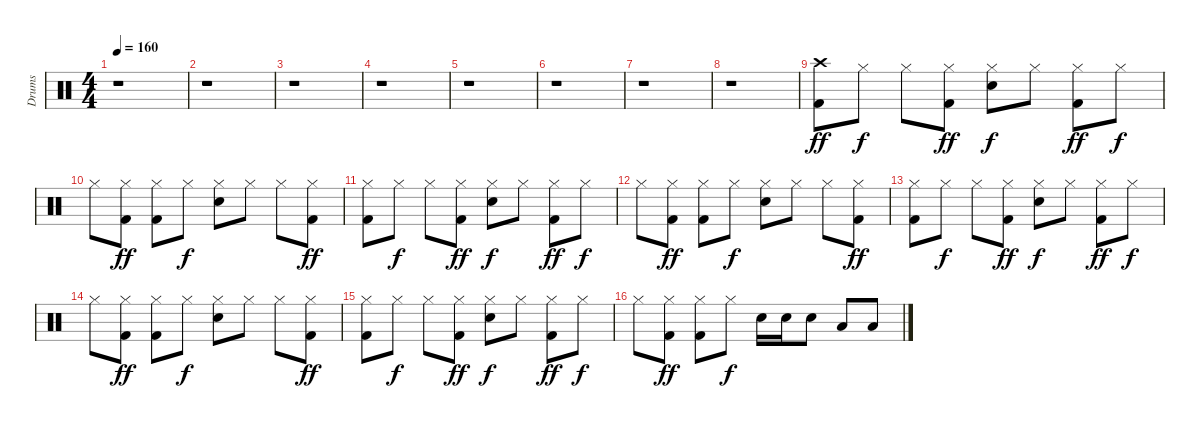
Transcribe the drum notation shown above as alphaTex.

\track ("Drums" "Drums") {instrument percussion}
\staff {score}
\articulation defaults
\ts (4 4)
\tempo 160
\clef neutral
\ks c
r.1{dy ff} |
r.1 |
r.1 |
r.1 |
r.1 |
r.1 |
r.1 |
r.1 |
("Crash high (hit)" "Kick (hit) 2").8 "Hi-Hat (closed)".8{dy f} "Hi-Hat (closed)".8 ("Hi-Hat (closed)" "Kick (hit) 2").8{dy ff} ("Hi-Hat (closed)" "Snare (hit) 2").8{dy f} "Hi-Hat (closed)".8 ("Hi-Hat (closed)" "Kick (hit) 2").8{dy ff} "Hi-Hat (closed)".8{dy f} |
"Hi-Hat (closed)".8 ("Hi-Hat (closed)" "Kick (hit) 2").8{dy ff} ("Hi-Hat (closed)" "Kick (hit) 2").8 "Hi-Hat (closed)".8{dy f} ("Hi-Hat (closed)" "Snare (hit) 2").8 "Hi-Hat (closed)".8 "Hi-Hat (closed)".8 ("Hi-Hat (closed)" "Kick (hit) 2").8{dy ff} |
("Hi-Hat (closed)" "Kick (hit) 2").8 "Hi-Hat (closed)".8{dy f} "Hi-Hat (closed)".8 ("Hi-Hat (closed)" "Kick (hit) 2").8{dy ff} ("Hi-Hat (closed)" "Snare (hit) 2").8{dy f} "Hi-Hat (closed)".8 ("Hi-Hat (closed)" "Kick (hit) 2").8{dy ff} "Hi-Hat (closed)".8{dy f} |
"Hi-Hat (closed)".8 ("Hi-Hat (closed)" "Kick (hit) 2").8{dy ff} ("Hi-Hat (closed)" "Kick (hit) 2").8 "Hi-Hat (closed)".8{dy f} ("Hi-Hat (closed)" "Snare (hit) 2").8 "Hi-Hat (closed)".8 "Hi-Hat (closed)".8 ("Hi-Hat (closed)" "Kick (hit) 2").8{dy ff} |
("Hi-Hat (closed)" "Kick (hit) 2").8 "Hi-Hat (closed)".8{dy f} "Hi-Hat (closed)".8 ("Hi-Hat (closed)" "Kick (hit) 2").8{dy ff} ("Hi-Hat (closed)" "Snare (hit) 2").8{dy f} "Hi-Hat (closed)".8 ("Hi-Hat (closed)" "Kick (hit) 2").8{dy ff} "Hi-Hat (closed)".8{dy f} |
"Hi-Hat (closed)".8 ("Hi-Hat (closed)" "Kick (hit) 2").8{dy ff} ("Hi-Hat (closed)" "Kick (hit) 2").8 "Hi-Hat (closed)".8{dy f} ("Hi-Hat (closed)" "Snare (hit) 2").8 "Hi-Hat (closed)".8 "Hi-Hat (closed)".8 ("Hi-Hat (closed)" "Kick (hit) 2").8{dy ff} |
("Hi-Hat (closed)" "Kick (hit) 2").8 "Hi-Hat (closed)".8{dy f} "Hi-Hat (closed)".8 ("Hi-Hat (closed)" "Kick (hit) 2").8{dy ff} ("Hi-Hat (closed)" "Snare (hit) 2").8{dy f} "Hi-Hat (closed)".8 ("Hi-Hat (closed)" "Kick (hit) 2").8{dy ff} "Hi-Hat (closed)".8{dy f} |
"Hi-Hat (closed)".8 ("Hi-Hat (closed)" "Kick (hit) 2").8{dy ff} ("Hi-Hat (closed)" "Kick (hit) 2").8 "Hi-Hat (closed)".8{dy f} "Snare (hit) 2".16 "Snare (hit) 2".16 "Snare (hit) 2".8 "Low Tom (hit)".8 "Low Tom (hit)".8
